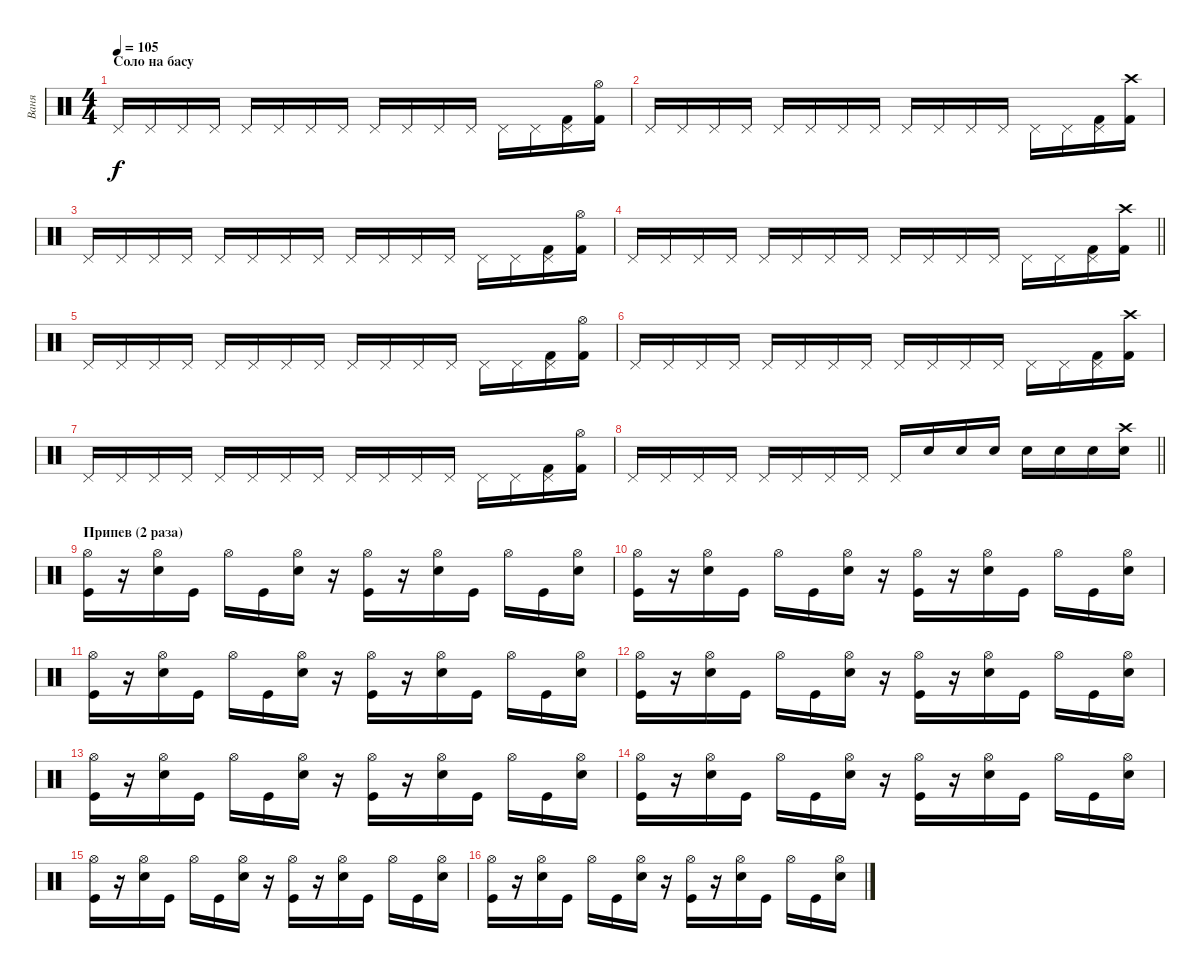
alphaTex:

\track ("Ваня" "Ваня") {instrument percussion}
\staff {score}
\articulation defaults
\ts (4 4)
\section ("" "Соло на басу")
\tempo 105
\clef neutral
\ks c "Pedal Hi-Hat (hit)".16{dy f} "Pedal Hi-Hat (hit)".16 "Pedal Hi-Hat (hit)".16 "Pedal Hi-Hat (hit)".16 "Pedal Hi-Hat (hit)".16 "Pedal Hi-Hat (hit)".16 "Pedal Hi-Hat (hit)".16 "Pedal Hi-Hat (hit)".16 "Pedal Hi-Hat (hit)".16 "Pedal Hi-Hat (hit)".16 "Pedal Hi-Hat (hit)".16 "Pedal Hi-Hat (hit)".16 "Pedal Hi-Hat (hit)".16 "Pedal Hi-Hat (hit)".16
("Pedal Hi-Hat (hit)" "Kick (hit) 2").16 ("Hi-Hat (open)" "Kick (hit) 2").16 |
"Pedal Hi-Hat (hit)".16 "Pedal Hi-Hat (hit)".16 "Pedal Hi-Hat (hit)".16 "Pedal Hi-Hat (hit)".16 "Pedal Hi-Hat (hit)".16 "Pedal Hi-Hat (hit)".16 "Pedal Hi-Hat (hit)".16 "Pedal Hi-Hat (hit)".16 "Pedal Hi-Hat (hit)".16 "Pedal Hi-Hat (hit)".16 "Pedal Hi-Hat (hit)".16 "Pedal Hi-Hat (hit)".16 "Pedal Hi-Hat (hit)".16 "Pedal Hi-Hat (hit)".16 ("Pedal Hi-Hat (hit)" "Kick (hit) 2").16 ("Crash high (hit)" "Kick (hit) 2").16 |
"Pedal Hi-Hat (hit)".16 "Pedal Hi-Hat (hit)".16 "Pedal Hi-Hat (hit)".16 "Pedal Hi-Hat (hit)".16 "Pedal Hi-Hat (hit)".16 "Pedal Hi-Hat (hit)".16 "Pedal Hi-Hat (hit)".16 "Pedal Hi-Hat (hit)".16 "Pedal Hi-Hat (hit)".16 "Pedal Hi-Hat (hit)".16 "Pedal Hi-Hat (hit)".16 "Pedal Hi-Hat (hit)".16 "Pedal Hi-Hat (hit)".16 "Pedal Hi-Hat (hit)".16 ("Pedal Hi-Hat (hit)" "Kick (hit) 2").16 ("Hi-Hat (open)" "Kick (hit) 2").16 |
\barLineRight lightlight "Pedal Hi-Hat (hit)".16 "Pedal Hi-Hat (hit)".16 "Pedal Hi-Hat (hit)".16 "Pedal Hi-Hat (hit)".16 "Pedal Hi-Hat (hit)".16 "Pedal Hi-Hat (hit)".16 "Pedal Hi-Hat (hit)".16 "Pedal Hi-Hat (hit)".16 "Pedal Hi-Hat (hit)".16 "Pedal Hi-Hat (hit)".16 "Pedal Hi-Hat (hit)".16 "Pedal Hi-Hat (hit)".16 "Pedal Hi-Hat (hit)".16 "Pedal Hi-Hat (hit)".16
("Pedal Hi-Hat (hit)" "Kick (hit) 2").16 ("Crash high (hit)" "Kick (hit) 2").16 |
"Pedal Hi-Hat (hit)".16 "Pedal Hi-Hat (hit)".16 "Pedal Hi-Hat (hit)".16 "Pedal Hi-Hat (hit)".16 "Pedal Hi-Hat (hit)".16 "Pedal Hi-Hat (hit)".16 "Pedal Hi-Hat (hit)".16 "Pedal Hi-Hat (hit)".16 "Pedal Hi-Hat (hit)".16 "Pedal Hi-Hat (hit)".16 "Pedal Hi-Hat (hit)".16 "Pedal Hi-Hat (hit)".16 "Pedal Hi-Hat (hit)".16 "Pedal Hi-Hat (hit)".16 ("Pedal Hi-Hat (hit)" "Kick (hit) 2").16 ("Hi-Hat (open)" "Kick (hit) 2").16 |
"Pedal Hi-Hat (hit)".16 "Pedal Hi-Hat (hit)".16 "Pedal Hi-Hat (hit)".16 "Pedal Hi-Hat (hit)".16 "Pedal Hi-Hat (hit)".16 "Pedal Hi-Hat (hit)".16 "Pedal Hi-Hat (hit)".16 "Pedal Hi-Hat (hit)".16 "Pedal Hi-Hat (hit)".16 "Pedal Hi-Hat (hit)".16 "Pedal Hi-Hat (hit)".16 "Pedal Hi-Hat (hit)".16 "Pedal Hi-Hat (hit)".16 "Pedal Hi-Hat (hit)".16 ("Pedal Hi-Hat (hit)" "Kick (hit) 2").16 ("Crash high (hit)" "Kick (hit) 2").16 |
"Pedal Hi-Hat (hit)".16 "Pedal Hi-Hat (hit)".16 "Pedal Hi-Hat (hit)".16 "Pedal Hi-Hat (hit)".16 "Pedal Hi-Hat (hit)".16 "Pedal Hi-Hat (hit)".16 "Pedal Hi-Hat (hit)".16 "Pedal Hi-Hat (hit)".16 "Pedal Hi-Hat (hit)".16 "Pedal Hi-Hat (hit)".16 "Pedal Hi-Hat (hit)".16 "Pedal Hi-Hat (hit)".16 "Pedal Hi-Hat (hit)".16 "Pedal Hi-Hat (hit)".16 ("Pedal Hi-Hat (hit)" "Kick (hit) 2").16 ("Hi-Hat (open)" "Kick (hit) 2").16 |
\barLineRight lightlight "Pedal Hi-Hat (hit)".16 "Pedal Hi-Hat (hit)".16 "Pedal Hi-Hat (hit)".16 "Pedal Hi-Hat (hit)".16 "Pedal Hi-Hat (hit)".16 "Pedal Hi-Hat (hit)".16 "Pedal Hi-Hat (hit)".16 "Pedal Hi-Hat (hit)".16 "Pedal Hi-Hat (hit)".16 "Snare (hit) 2".16 "Snare (hit) 2".16 "Snare (hit) 2".16 "Snare (hit) 2".16 "Snare (hit) 2".16 "Snare (hit) 2".16
("Crash high (hit)" "Snare (hit) 2").16 |
\section ("" "Припев (2 раза)")
("Hi-Hat (open)" "Kick (hit)").16 r.16 ("Hi-Hat (open)" "Snare (hit) 2").16 "Kick (hit)".16 "Hi-Hat (open)".16 "Kick (hit)".16 ("Hi-Hat (open)" "Snare (hit) 2").16 r.16 ("Hi-Hat (open)" "Kick (hit)").16 r.16 ("Hi-Hat (open)" "Snare (hit) 2").16 "Kick (hit)".16 "Hi-Hat (open)".16 "Kick (hit)".16 ("Hi-Hat (open)" "Snare (hit) 2").16 |
("Hi-Hat (open)" "Kick (hit)").16 r.16 ("Hi-Hat (open)" "Snare (hit) 2").16 "Kick (hit)".16 "Hi-Hat (open)".16 "Kick (hit)".16 ("Hi-Hat (open)" "Snare (hit) 2").16 r.16 ("Hi-Hat (open)" "Kick (hit)").16 r.16 ("Hi-Hat (open)" "Snare (hit) 2").16 "Kick (hit)".16 "Hi-Hat (open)".16 "Kick (hit)".16 ("Hi-Hat (open)" "Snare (hit) 2").16 |
("Hi-Hat (open)" "Kick (hit)").16 r.16 ("Hi-Hat (open)" "Snare (hit) 2").16 "Kick (hit)".16 "Hi-Hat (open)".16 "Kick (hit)".16 ("Hi-Hat (open)" "Snare (hit) 2").16 r.16 ("Hi-Hat (open)" "Kick (hit)").16 r.16 ("Hi-Hat (open)" "Snare (hit) 2").16 "Kick (hit)".16 "Hi-Hat (open)".16 "Kick (hit)".16 ("Hi-Hat (open)" "Snare (hit) 2").16 |
("Hi-Hat (open)" "Kick (hit)").16 r.16 ("Hi-Hat (open)" "Snare (hit) 2").16 "Kick (hit)".16 "Hi-Hat (open)".16 "Kick (hit)".16 ("Hi-Hat (open)" "Snare (hit) 2").16 r.16 ("Hi-Hat (open)" "Kick (hit)").16 r.16 ("Hi-Hat (open)" "Snare (hit) 2").16 "Kick (hit)".16 "Hi-Hat (open)".16 "Kick (hit)".16 ("Hi-Hat (open)" "Snare (hit) 2").16 |
("Hi-Hat (open)" "Kick (hit)").16 r.16 ("Hi-Hat (open)" "Snare (hit) 2").16 "Kick (hit)".16 "Hi-Hat (open)".16 "Kick (hit)".16 ("Hi-Hat (open)" "Snare (hit) 2").16 r.16 ("Hi-Hat (open)" "Kick (hit)").16 r.16 ("Hi-Hat (open)" "Snare (hit) 2").16 "Kick (hit)".16 "Hi-Hat (open)".16 "Kick (hit)".16 ("Hi-Hat (open)" "Snare (hit) 2").16 |
("Hi-Hat (open)" "Kick (hit)").16 r.16 ("Hi-Hat (open)" "Snare (hit) 2").16 "Kick (hit)".16 "Hi-Hat (open)".16 "Kick (hit)".16 ("Hi-Hat (open)" "Snare (hit) 2").16 r.16 ("Hi-Hat (open)" "Kick (hit)").16 r.16 ("Hi-Hat (open)" "Snare (hit) 2").16 "Kick (hit)".16 "Hi-Hat (open)".16 "Kick (hit)".16 ("Hi-Hat (open)" "Snare (hit) 2").16 |
("Hi-Hat (open)" "Kick (hit)").16 r.16 ("Hi-Hat (open)" "Snare (hit) 2").16 "Kick (hit)".16 "Hi-Hat (open)".16 "Kick (hit)".16 ("Hi-Hat (open)" "Snare (hit) 2").16 r.16 ("Hi-Hat (open)" "Kick (hit)").16 r.16 ("Hi-Hat (open)" "Snare (hit) 2").16 "Kick (hit)".16 "Hi-Hat (open)".16 "Kick (hit)".16 ("Hi-Hat (open)" "Snare (hit) 2").16 |
("Hi-Hat (open)" "Kick (hit)").16 r.16 ("Hi-Hat (open)" "Snare (hit) 2").16 "Kick (hit)".16 "Hi-Hat (open)".16 "Kick (hit)".16 ("Hi-Hat (open)" "Snare (hit) 2").16 r.16 ("Hi-Hat (open)" "Kick (hit)").16 r.16 ("Hi-Hat (open)" "Snare (hit) 2").16 "Kick (hit)".16 "Hi-Hat (open)".16 "Kick (hit)".16 ("Hi-Hat (open)" "Snare (hit) 2").16
